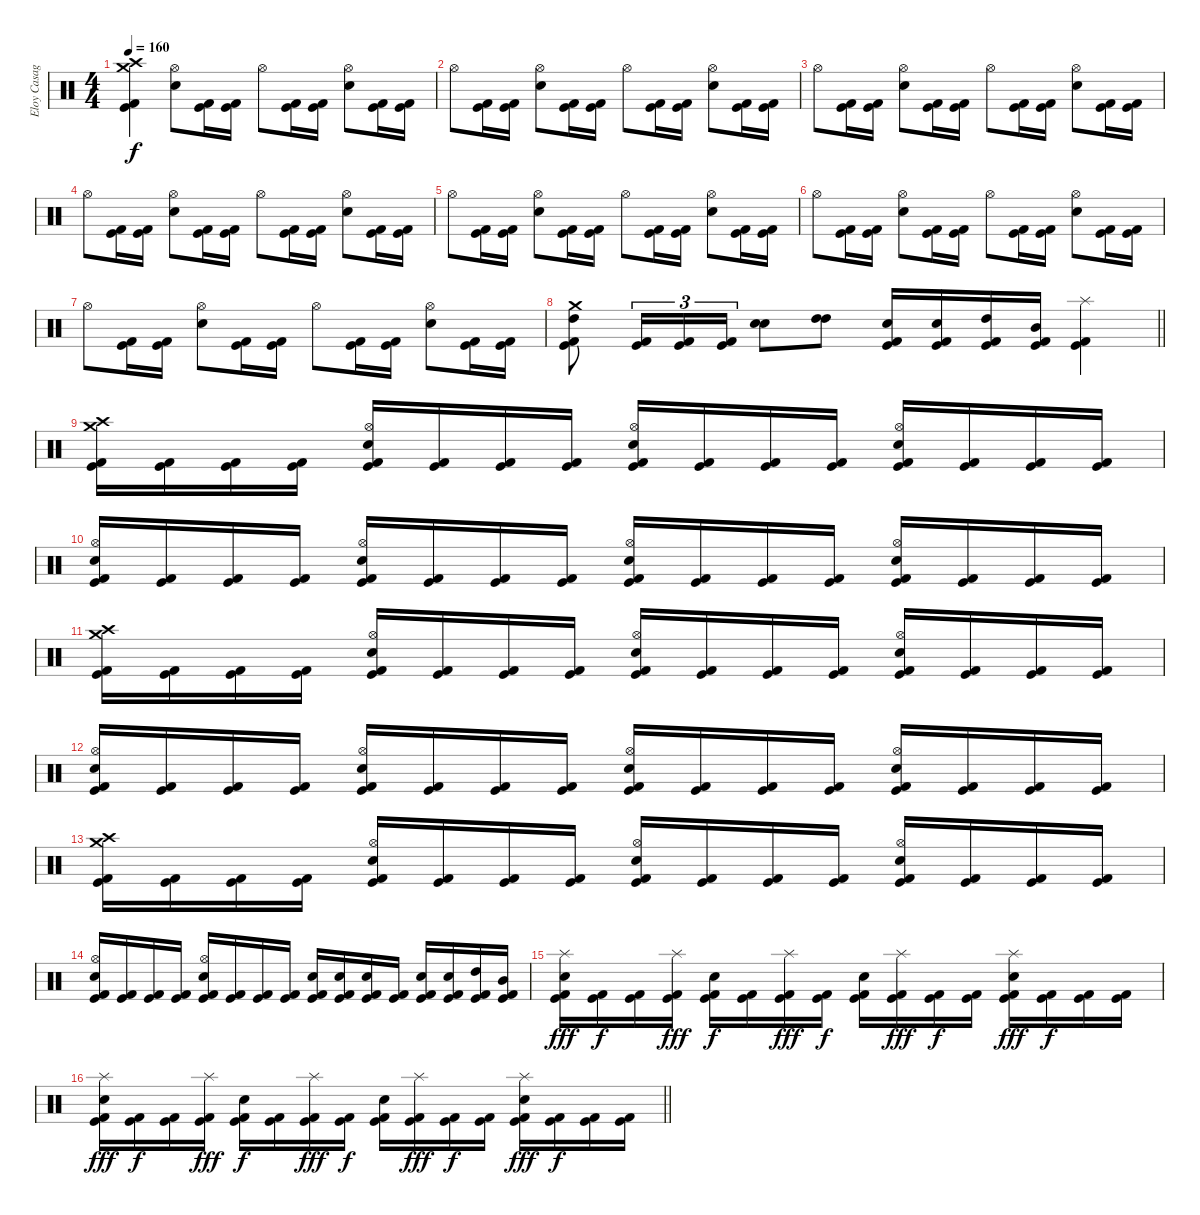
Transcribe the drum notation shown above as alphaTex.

\track ("Eloy Casagrande" "Eloy Casag") {instrument percussion}
\staff {score}
\articulation defaults
\ts (4 4)
\tempo 160
\clef neutral
\ks c
("Crash medium (hit)" "Crash high (hit)" "Kick (hit) 2" "Kick (hit)").4{dy f} ("Hi-Hat (open)" "Electric Snare (hit)").8 ("Kick (hit) 2" "Kick (hit)").16 ("Kick (hit) 2" "Kick (hit)").16 "Hi-Hat (open)".8 ("Kick (hit) 2" "Kick (hit)").16 ("Kick (hit) 2" "Kick (hit)").16 ("Hi-Hat (open)" "Electric Snare (hit)").8 ("Kick (hit)" "Kick (hit) 2").16 ("Kick (hit) 2" "Kick (hit)").16 |
"Hi-Hat (open)".8 ("Kick (hit) 2" "Kick (hit)").16 ("Kick (hit) 2" "Kick (hit)").16 ("Hi-Hat (open)" "Electric Snare (hit)").8 ("Kick (hit) 2" "Kick (hit)").16 ("Kick (hit) 2" "Kick (hit)").16 "Hi-Hat (open)".8 ("Kick (hit) 2" "Kick (hit)").16 ("Kick (hit) 2" "Kick (hit)").16 ("Hi-Hat (open)" "Electric Snare (hit)").8 ("Kick (hit)" "Kick (hit) 2").16 ("Kick (hit) 2" "Kick (hit)").16 |
"Hi-Hat (open)".8 ("Kick (hit) 2" "Kick (hit)").16 ("Kick (hit) 2" "Kick (hit)").16 ("Hi-Hat (open)" "Electric Snare (hit)").8 ("Kick (hit) 2" "Kick (hit)").16 ("Kick (hit) 2" "Kick (hit)").16 "Hi-Hat (open)".8 ("Kick (hit) 2" "Kick (hit)").16 ("Kick (hit) 2" "Kick (hit)").16 ("Hi-Hat (open)" "Electric Snare (hit)").8 ("Kick (hit)" "Kick (hit) 2").16 ("Kick (hit) 2" "Kick (hit)").16 |
"Hi-Hat (open)".8 ("Kick (hit) 2" "Kick (hit)").16 ("Kick (hit) 2" "Kick (hit)").16 ("Hi-Hat (open)" "Electric Snare (hit)").8 ("Kick (hit) 2" "Kick (hit)").16 ("Kick (hit) 2" "Kick (hit)").16 "Hi-Hat (open)".8 ("Kick (hit) 2" "Kick (hit)").16 ("Kick (hit) 2" "Kick (hit)").16 ("Hi-Hat (open)" "Electric Snare (hit)").8 ("Kick (hit)" "Kick (hit) 2").16 ("Kick (hit) 2" "Kick (hit)").16 |
"Hi-Hat (open)".8 ("Kick (hit) 2" "Kick (hit)").16 ("Kick (hit) 2" "Kick (hit)").16 ("Hi-Hat (open)" "Electric Snare (hit)").8 ("Kick (hit) 2" "Kick (hit)").16 ("Kick (hit) 2" "Kick (hit)").16 "Hi-Hat (open)".8 ("Kick (hit) 2" "Kick (hit)").16 ("Kick (hit) 2" "Kick (hit)").16 ("Hi-Hat (open)" "Electric Snare (hit)").8 ("Kick (hit)" "Kick (hit) 2").16 ("Kick (hit) 2" "Kick (hit)").16 |
"Hi-Hat (open)".8 ("Kick (hit) 2" "Kick (hit)").16 ("Kick (hit) 2" "Kick (hit)").16 ("Hi-Hat (open)" "Electric Snare (hit)").8 ("Kick (hit) 2" "Kick (hit)").16 ("Kick (hit) 2" "Kick (hit)").16 "Hi-Hat (open)".8 ("Kick (hit) 2" "Kick (hit)").16 ("Kick (hit) 2" "Kick (hit)").16 ("Hi-Hat (open)" "Electric Snare (hit)").8 ("Kick (hit)" "Kick (hit) 2").16 ("Kick (hit) 2" "Kick (hit)").16 |
"Hi-Hat (open)".8 ("Kick (hit) 2" "Kick (hit)").16 ("Kick (hit) 2" "Kick (hit)").16 ("Hi-Hat (open)" "Electric Snare (hit)").8 ("Kick (hit) 2" "Kick (hit)").16 ("Kick (hit) 2" "Kick (hit)").16 "Hi-Hat (open)".8 ("Kick (hit) 2" "Kick (hit)").16 ("Kick (hit) 2" "Kick (hit)").16 ("Hi-Hat (open)" "Electric Snare (hit)").8 ("Kick (hit)" "Kick (hit) 2").16 ("Kick (hit) 2" "Kick (hit)").16 |
\barLineRight lightlight
("Crash medium (hit)" "High Tom (hit)" "Kick (hit) 2" "Kick (hit)").8 ("Kick (hit) 2" "Kick (hit)").16{tu (3 2)} ("Kick (hit) 2" "Kick (hit)").16{tu (3 2)} ("Kick (hit) 2" "Kick (hit)").16{tu (3 2)} ("Electric Snare (hit)" "Electric Snare (hit)").8 ("High Tom (hit)" "High Tom (hit)").8 ("Electric Snare (hit)" "Kick (hit) 2" "Kick (hit)").16 ("Electric Snare (hit)" "Kick (hit) 2" "Kick (hit)").16 ("High Tom (hit)" "Kick (hit) 2" "Kick (hit)").16 ("Mid Tom (hit)" "Kick (hit) 2" "Kick (hit)").16 ("Splash (hit)" "Kick (hit) 2" "Kick (hit)").4 |
("Crash medium (hit)" "Crash high (hit)" "Kick (hit) 2" "Kick (hit)").16 ("Kick (hit) 2" "Kick (hit)").16 ("Kick (hit) 2" "Kick (hit)").16 ("Kick (hit) 2" "Kick (hit)").16 ("Hi-Hat (open)" "Electric Snare (hit)" "Kick (hit) 2" "Kick (hit)").16 ("Kick (hit) 2" "Kick (hit)").16 ("Kick (hit) 2" "Kick (hit)").16 ("Kick (hit) 2" "Kick (hit)").16 ("Hi-Hat (open)" "Electric Snare (hit)" "Kick (hit) 2" "Kick (hit)").16 ("Kick (hit) 2" "Kick (hit)").16 ("Kick (hit) 2" "Kick (hit)").16 ("Kick (hit) 2" "Kick (hit)").16 ("Hi-Hat (open)" "Electric Snare (hit)" "Kick (hit) 2" "Kick (hit)").16 ("Kick (hit) 2" "Kick (hit)").16 ("Kick (hit) 2" "Kick (hit)").16 ("Kick (hit) 2" "Kick (hit)").16 |
("Hi-Hat (open)" "Electric Snare (hit)" "Kick (hit) 2" "Kick (hit)").16 ("Kick (hit) 2" "Kick (hit)").16 ("Kick (hit) 2" "Kick (hit)").16 ("Kick (hit) 2" "Kick (hit)").16 ("Hi-Hat (open)" "Electric Snare (hit)" "Kick (hit) 2" "Kick (hit)").16 ("Kick (hit) 2" "Kick (hit)").16 ("Kick (hit) 2" "Kick (hit)").16 ("Kick (hit) 2" "Kick (hit)").16 ("Hi-Hat (open)" "Electric Snare (hit)" "Kick (hit) 2" "Kick (hit)").16 ("Kick (hit) 2" "Kick (hit)").16 ("Kick (hit) 2" "Kick (hit)").16 ("Kick (hit) 2" "Kick (hit)").16 ("Hi-Hat (open)" "Electric Snare (hit)" "Kick (hit) 2" "Kick (hit)").16 ("Kick (hit) 2" "Kick (hit)").16 ("Kick (hit) 2" "Kick (hit)").16 ("Kick (hit) 2" "Kick (hit)").16 |
("Crash medium (hit)" "Crash high (hit)" "Kick (hit) 2" "Kick (hit)").16 ("Kick (hit) 2" "Kick (hit)").16 ("Kick (hit) 2" "Kick (hit)").16 ("Kick (hit) 2" "Kick (hit)").16 ("Hi-Hat (open)" "Electric Snare (hit)" "Kick (hit) 2" "Kick (hit)").16 ("Kick (hit) 2" "Kick (hit)").16 ("Kick (hit) 2" "Kick (hit)").16 ("Kick (hit) 2" "Kick (hit)").16 ("Hi-Hat (open)" "Electric Snare (hit)" "Kick (hit) 2" "Kick (hit)").16 ("Kick (hit) 2" "Kick (hit)").16 ("Kick (hit) 2" "Kick (hit)").16 ("Kick (hit) 2" "Kick (hit)").16 ("Hi-Hat (open)" "Electric Snare (hit)" "Kick (hit) 2" "Kick (hit)").16 ("Kick (hit) 2" "Kick (hit)").16 ("Kick (hit) 2" "Kick (hit)").16 ("Kick (hit) 2" "Kick (hit)").16 |
("Hi-Hat (open)" "Electric Snare (hit)" "Kick (hit) 2" "Kick (hit)").16 ("Kick (hit) 2" "Kick (hit)").16 ("Kick (hit) 2" "Kick (hit)").16 ("Kick (hit) 2" "Kick (hit)").16 ("Hi-Hat (open)" "Electric Snare (hit)" "Kick (hit) 2" "Kick (hit)").16 ("Kick (hit) 2" "Kick (hit)").16 ("Kick (hit) 2" "Kick (hit)").16 ("Kick (hit) 2" "Kick (hit)").16 ("Hi-Hat (open)" "Electric Snare (hit)" "Kick (hit) 2" "Kick (hit)").16 ("Kick (hit) 2" "Kick (hit)").16 ("Kick (hit) 2" "Kick (hit)").16 ("Kick (hit) 2" "Kick (hit)").16 ("Hi-Hat (open)" "Electric Snare (hit)" "Kick (hit) 2" "Kick (hit)").16 ("Kick (hit) 2" "Kick (hit)").16 ("Kick (hit) 2" "Kick (hit)").16 ("Kick (hit) 2" "Kick (hit)").16 |
("Crash medium (hit)" "Crash high (hit)" "Kick (hit) 2" "Kick (hit)").16 ("Kick (hit) 2" "Kick (hit)").16 ("Kick (hit) 2" "Kick (hit)").16 ("Kick (hit) 2" "Kick (hit)").16 ("Hi-Hat (open)" "Electric Snare (hit)" "Kick (hit) 2" "Kick (hit)").16 ("Kick (hit) 2" "Kick (hit)").16 ("Kick (hit) 2" "Kick (hit)").16 ("Kick (hit) 2" "Kick (hit)").16 ("Hi-Hat (open)" "Electric Snare (hit)" "Kick (hit) 2" "Kick (hit)").16 ("Kick (hit) 2" "Kick (hit)").16 ("Kick (hit) 2" "Kick (hit)").16 ("Kick (hit) 2" "Kick (hit)").16 ("Hi-Hat (open)" "Electric Snare (hit)" "Kick (hit) 2" "Kick (hit)").16 ("Kick (hit) 2" "Kick (hit)").16 ("Kick (hit) 2" "Kick (hit)").16 ("Kick (hit) 2" "Kick (hit)").16 |
("Hi-Hat (open)" "Electric Snare (hit)" "Kick (hit) 2" "Kick (hit)").16 ("Kick (hit) 2" "Kick (hit)").16 ("Kick (hit) 2" "Kick (hit)").16 ("Kick (hit) 2" "Kick (hit)").16 ("Hi-Hat (open)" "Electric Snare (hit)" "Kick (hit) 2" "Kick (hit)").16 ("Kick (hit) 2" "Kick (hit)").16 ("Kick (hit) 2" "Kick (hit)").16 ("Kick (hit) 2" "Kick (hit)").16 ("Electric Snare (hit)" "Kick (hit) 2" "Kick (hit)").16 ("Electric Snare (hit)" "Kick (hit) 2" "Kick (hit)").16 ("Electric Snare (hit)" "Kick (hit) 2" "Kick (hit)").16 ("Kick (hit) 2" "Kick (hit)").16 ("Electric Snare (hit)" "Kick (hit) 2" "Kick (hit)").16 ("Electric Snare (hit)" "Kick (hit) 2" "Kick (hit)").16 ("High Tom (hit)" "Kick (hit) 2" "Kick (hit)").16 ("Mid Tom (hit)" "Kick (hit) 2" "Kick (hit)").16 |
("Splash (hit)" "Electric Snare (hit)" "Kick (hit) 2" "Kick (hit)").16{dy fff} ("Kick (hit) 2" "Kick (hit)").16{dy f} ("Kick (hit) 2" "Kick (hit)").16 ("Splash (hit)" "Kick (hit) 2" "Kick (hit)").16{dy fff} ("Electric Snare (hit)" "Kick (hit) 2" "Kick (hit)").16{dy f} ("Kick (hit) 2" "Kick (hit)").16 ("Splash (hit)" "Kick (hit) 2" "Kick (hit)").16{dy fff} ("Kick (hit) 2" "Kick (hit)").16{dy f} ("Electric Snare (hit)" "Kick (hit) 2" "Kick (hit)").16 ("Splash (hit)" "Kick (hit) 2" "Kick (hit)").16{dy fff} ("Kick (hit) 2" "Kick (hit)").16{dy f} ("Kick (hit) 2" "Kick (hit)").16 ("Splash (hit)" "Electric Snare (hit)" "Kick (hit) 2" "Kick (hit)").16{dy fff} ("Kick (hit) 2" "Kick (hit)").16{dy f} ("Kick (hit) 2" "Kick (hit)").16 ("Kick (hit) 2" "Kick (hit)").16 |
\barLineRight lightlight
("Splash (hit)" "Electric Snare (hit)" "Kick (hit) 2" "Kick (hit)").16{dy fff} ("Kick (hit) 2" "Kick (hit)").16{dy f} ("Kick (hit) 2" "Kick (hit)").16 ("Splash (hit)" "Kick (hit) 2" "Kick (hit)").16{dy fff} ("Electric Snare (hit)" "Kick (hit) 2" "Kick (hit)").16{dy f} ("Kick (hit) 2" "Kick (hit)").16 ("Splash (hit)" "Kick (hit) 2" "Kick (hit)").16{dy fff} ("Kick (hit) 2" "Kick (hit)").16{dy f} ("Electric Snare (hit)" "Kick (hit) 2" "Kick (hit)").16 ("Splash (hit)" "Kick (hit) 2" "Kick (hit)").16{dy fff} ("Kick (hit) 2" "Kick (hit)").16{dy f} ("Kick (hit) 2" "Kick (hit)").16 ("Splash (hit)" "Electric Snare (hit)" "Kick (hit) 2" "Kick (hit)").16{dy fff} ("Kick (hit) 2" "Kick (hit)").16{dy f} ("Kick (hit) 2" "Kick (hit)").16 ("Kick (hit) 2" "Kick (hit)").16
